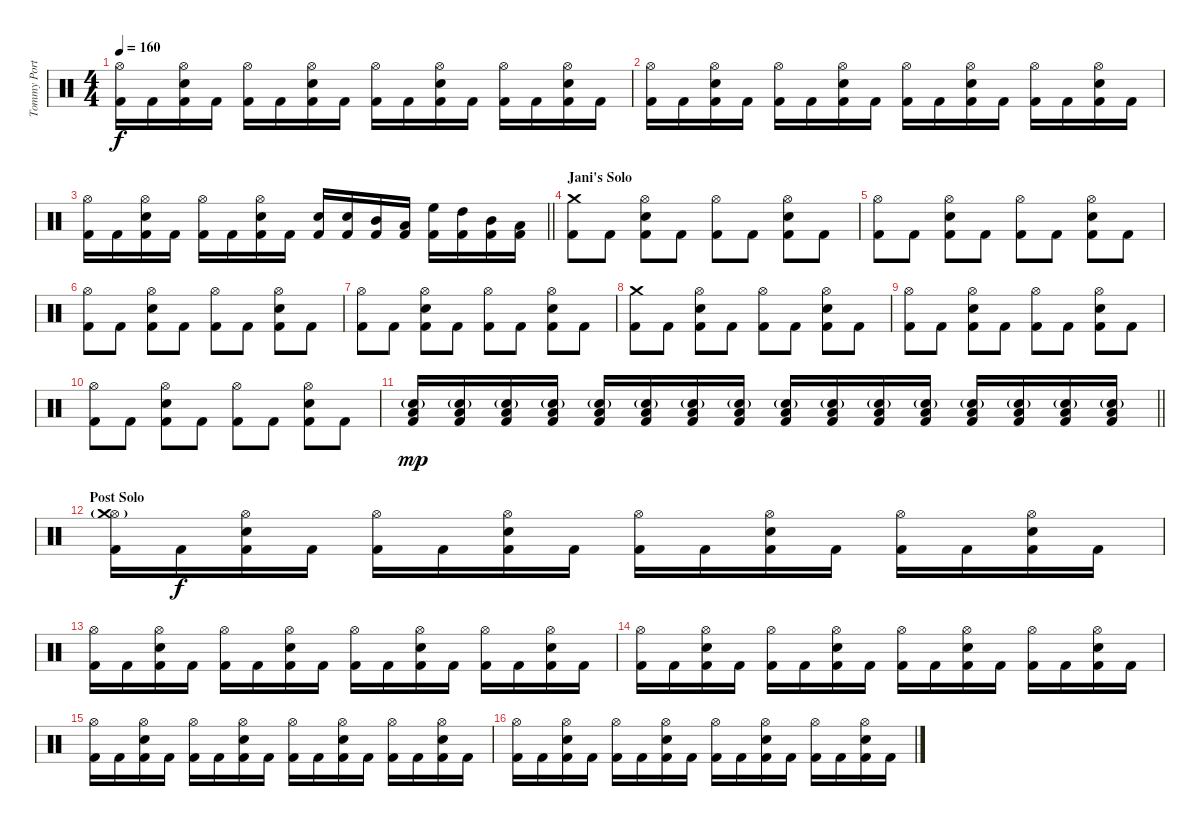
\track ("Tommy Portino" "Tommy Port") {instrument percussion}
\staff {score}
\articulation defaults
\ts (4 4)
\tempo 160
\clef neutral
\ks c
("Hi-Hat (open)" "Kick (hit) 2").16{dy f} "Kick (hit) 2".16 ("Hi-Hat (open)" "Snare (hit) 2" "Kick (hit) 2").16 "Kick (hit) 2".16 ("Hi-Hat (open)" "Kick (hit) 2").16 "Kick (hit) 2".16 ("Hi-Hat (open)" "Snare (hit) 2" "Kick (hit) 2").16 "Kick (hit) 2".16 ("Hi-Hat (open)" "Kick (hit) 2").16 "Kick (hit) 2".16 ("Hi-Hat (open)" "Snare (hit) 2" "Kick (hit) 2").16 "Kick (hit) 2".16 ("Hi-Hat (open)" "Kick (hit) 2").16 "Kick (hit) 2".16 ("Hi-Hat (open)" "Snare (hit) 2" "Kick (hit) 2").16 "Kick (hit) 2".16 |
("Hi-Hat (open)" "Kick (hit) 2").16 "Kick (hit) 2".16 ("Hi-Hat (open)" "Snare (hit) 2" "Kick (hit) 2").16 "Kick (hit) 2".16 ("Hi-Hat (open)" "Kick (hit) 2").16 "Kick (hit) 2".16 ("Hi-Hat (open)" "Snare (hit) 2" "Kick (hit) 2").16 "Kick (hit) 2".16 ("Hi-Hat (open)" "Kick (hit) 2").16 "Kick (hit) 2".16 ("Hi-Hat (open)" "Snare (hit) 2" "Kick (hit) 2").16 "Kick (hit) 2".16 ("Hi-Hat (open)" "Kick (hit) 2").16 "Kick (hit) 2".16 ("Hi-Hat (open)" "Snare (hit) 2" "Kick (hit) 2").16 "Kick (hit) 2".16 |
\barLineRight lightlight
("Hi-Hat (open)" "Kick (hit) 2").16 "Kick (hit) 2".16 ("Hi-Hat (open)" "Snare (hit) 2" "Kick (hit) 2").16 "Kick (hit) 2".16 ("Hi-Hat (open)" "Kick (hit) 2").16 "Kick (hit) 2".16 ("Hi-Hat (open)" "Snare (hit) 2" "Kick (hit) 2").16 "Kick (hit) 2".16 ("Snare (hit) 2" "Kick (hit) 2").16 ("Snare (hit) 2" "Kick (hit) 2").16 ("Mid Tom (hit)" "Kick (hit) 2").16 ("Low Tom (hit)" "Kick (hit) 2").16 ("High Floor Tom (hit)" "Kick (hit) 2").16 ("High Tom (hit)" "Kick (hit) 2").16 ("Mid Tom (hit)" "Kick (hit) 2").16 ("Low Tom (hit)" "Kick (hit) 2").16 |
\section ("" "Jani's Solo")
("Crash medium (hit)" "Kick (hit) 2").8 "Kick (hit) 2".8 ("Hi-Hat (open)" "Snare (hit) 2" "Kick (hit) 2").8 "Kick (hit) 2".8 ("Hi-Hat (open)" "Kick (hit) 2").8 "Kick (hit) 2".8 ("Hi-Hat (open)" "Snare (hit) 2" "Kick (hit) 2").8 "Kick (hit) 2".8 |
("Hi-Hat (open)" "Kick (hit) 2").8 "Kick (hit) 2".8 ("Hi-Hat (open)" "Snare (hit) 2" "Kick (hit) 2").8 "Kick (hit) 2".8 ("Hi-Hat (open)" "Kick (hit) 2").8 "Kick (hit) 2".8 ("Hi-Hat (open)" "Snare (hit) 2" "Kick (hit) 2").8 "Kick (hit) 2".8 |
("Hi-Hat (open)" "Kick (hit) 2").8 "Kick (hit) 2".8 ("Hi-Hat (open)" "Snare (hit) 2" "Kick (hit) 2").8 "Kick (hit) 2".8 ("Hi-Hat (open)" "Kick (hit) 2").8 "Kick (hit) 2".8 ("Hi-Hat (open)" "Snare (hit) 2" "Kick (hit) 2").8 "Kick (hit) 2".8 |
("Hi-Hat (open)" "Kick (hit) 2").8 "Kick (hit) 2".8 ("Hi-Hat (open)" "Snare (hit) 2" "Kick (hit) 2").8 "Kick (hit) 2".8 ("Hi-Hat (open)" "Kick (hit) 2").8 "Kick (hit) 2".8 ("Hi-Hat (open)" "Snare (hit) 2" "Kick (hit) 2").8 "Kick (hit) 2".8 |
("Crash medium (hit)" "Kick (hit) 2").8 "Kick (hit) 2".8 ("Hi-Hat (open)" "Snare (hit) 2" "Kick (hit) 2").8 "Kick (hit) 2".8 ("Hi-Hat (open)" "Kick (hit) 2").8 "Kick (hit) 2".8 ("Hi-Hat (open)" "Snare (hit) 2" "Kick (hit) 2").8 "Kick (hit) 2".8 |
("Hi-Hat (open)" "Kick (hit) 2").8 "Kick (hit) 2".8 ("Hi-Hat (open)" "Snare (hit) 2" "Kick (hit) 2").8 "Kick (hit) 2".8 ("Hi-Hat (open)" "Kick (hit) 2").8 "Kick (hit) 2".8 ("Hi-Hat (open)" "Snare (hit) 2" "Kick (hit) 2").8 "Kick (hit) 2".8 |
("Hi-Hat (open)" "Kick (hit) 2").8 "Kick (hit) 2".8 ("Hi-Hat (open)" "Snare (hit) 2" "Kick (hit) 2").8 "Kick (hit) 2".8 ("Hi-Hat (open)" "Kick (hit) 2").8 "Kick (hit) 2".8 ("Hi-Hat (open)" "Snare (hit) 2" "Kick (hit) 2").8 "Kick (hit) 2".8 |
\barLineRight lightlight
("Low Tom (hit)" "Snare (hit) 2"{g} "Kick (hit) 2").16{dy mp} ("Low Tom (hit)" "Snare (hit) 2"{g} "Kick (hit) 2").16 ("Low Tom (hit)" "Snare (hit) 2"{g} "Kick (hit) 2").16 ("Low Tom (hit)" "Snare (hit) 2"{g} "Kick (hit) 2").16 ("Low Tom (hit)" "Snare (hit) 2"{g} "Kick (hit) 2").16 ("Low Tom (hit)" "Snare (hit) 2"{g} "Kick (hit) 2").16 ("Low Tom (hit)" "Snare (hit) 2"{g} "Kick (hit) 2").16 ("Low Tom (hit)" "Snare (hit) 2"{g} "Kick (hit) 2").16 ("Low Tom (hit)" "Snare (hit) 2"{g} "Kick (hit) 2").16 ("Low Tom (hit)" "Snare (hit) 2"{g} "Kick (hit) 2").16 ("Low Tom (hit)" "Snare (hit) 2"{g} "Kick (hit) 2").16 ("Low Tom (hit)" "Snare (hit) 2"{g} "Kick (hit) 2").16 ("Low Tom (hit)" "Snare (hit) 2"{g} "Kick (hit) 2").16 ("Low Tom (hit)" "Snare (hit) 2"{g} "Kick (hit) 2").16 ("Low Tom (hit)" "Snare (hit) 2"{g} "Kick (hit) 2").16 ("Low Tom (hit)" "Snare (hit) 2"{g} "Kick (hit) 2").16 |
\section ("" "Post Solo")
("Hi-Hat (open)"{g} "Crash medium (hit)" "Kick (hit) 2").16 "Kick (hit) 2".16{dy f} ("Hi-Hat (open)" "Snare (hit) 2" "Kick (hit) 2").16 "Kick (hit) 2".16 ("Hi-Hat (open)" "Kick (hit) 2").16 "Kick (hit) 2".16 ("Hi-Hat (open)" "Snare (hit) 2" "Kick (hit) 2").16 "Kick (hit) 2".16 ("Hi-Hat (open)" "Kick (hit) 2").16 "Kick (hit) 2".16 ("Hi-Hat (open)" "Snare (hit) 2" "Kick (hit) 2").16 "Kick (hit) 2".16 ("Hi-Hat (open)" "Kick (hit) 2").16 "Kick (hit) 2".16 ("Hi-Hat (open)" "Snare (hit) 2" "Kick (hit) 2").16 "Kick (hit) 2".16 |
("Hi-Hat (open)" "Kick (hit) 2").16 "Kick (hit) 2".16 ("Hi-Hat (open)" "Snare (hit) 2" "Kick (hit) 2").16 "Kick (hit) 2".16 ("Hi-Hat (open)" "Kick (hit) 2").16 "Kick (hit) 2".16 ("Hi-Hat (open)" "Snare (hit) 2" "Kick (hit) 2").16 "Kick (hit) 2".16 ("Hi-Hat (open)" "Kick (hit) 2").16 "Kick (hit) 2".16 ("Hi-Hat (open)" "Snare (hit) 2" "Kick (hit) 2").16 "Kick (hit) 2".16 ("Hi-Hat (open)" "Kick (hit) 2").16 "Kick (hit) 2".16 ("Hi-Hat (open)" "Snare (hit) 2" "Kick (hit) 2").16 "Kick (hit) 2".16 |
("Hi-Hat (open)" "Kick (hit) 2").16 "Kick (hit) 2".16 ("Hi-Hat (open)" "Snare (hit) 2" "Kick (hit) 2").16 "Kick (hit) 2".16 ("Hi-Hat (open)" "Kick (hit) 2").16 "Kick (hit) 2".16 ("Hi-Hat (open)" "Snare (hit) 2" "Kick (hit) 2").16 "Kick (hit) 2".16 ("Hi-Hat (open)" "Kick (hit) 2").16 "Kick (hit) 2".16 ("Hi-Hat (open)" "Snare (hit) 2" "Kick (hit) 2").16 "Kick (hit) 2".16 ("Hi-Hat (open)" "Kick (hit) 2").16 "Kick (hit) 2".16 ("Hi-Hat (open)" "Snare (hit) 2" "Kick (hit) 2").16 "Kick (hit) 2".16 |
("Hi-Hat (open)" "Kick (hit) 2").16 "Kick (hit) 2".16 ("Hi-Hat (open)" "Snare (hit) 2" "Kick (hit) 2").16 "Kick (hit) 2".16 ("Hi-Hat (open)" "Kick (hit) 2").16 "Kick (hit) 2".16 ("Hi-Hat (open)" "Snare (hit) 2" "Kick (hit) 2").16 "Kick (hit) 2".16 ("Hi-Hat (open)" "Kick (hit) 2").16 "Kick (hit) 2".16 ("Hi-Hat (open)" "Snare (hit) 2" "Kick (hit) 2").16 "Kick (hit) 2".16 ("Hi-Hat (open)" "Kick (hit) 2").16 "Kick (hit) 2".16 ("Hi-Hat (open)" "Snare (hit) 2" "Kick (hit) 2").16 "Kick (hit) 2".16 |
("Hi-Hat (open)" "Kick (hit) 2").16 "Kick (hit) 2".16 ("Hi-Hat (open)" "Snare (hit) 2" "Kick (hit) 2").16 "Kick (hit) 2".16 ("Hi-Hat (open)" "Kick (hit) 2").16 "Kick (hit) 2".16 ("Hi-Hat (open)" "Snare (hit) 2" "Kick (hit) 2").16 "Kick (hit) 2".16 ("Hi-Hat (open)" "Kick (hit) 2").16 "Kick (hit) 2".16 ("Hi-Hat (open)" "Snare (hit) 2" "Kick (hit) 2").16 "Kick (hit) 2".16 ("Hi-Hat (open)" "Kick (hit) 2").16 "Kick (hit) 2".16 ("Hi-Hat (open)" "Snare (hit) 2" "Kick (hit) 2").16 "Kick (hit) 2".16
